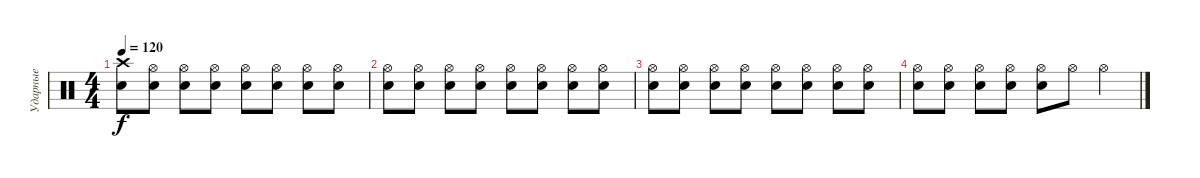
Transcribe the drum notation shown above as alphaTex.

\track ("Ударные" "Ударные") {instrument percussion}
\staff {score}
\articulation defaults
\ts (4 4)
\tempo 120
\clef neutral
\ks c
("Crash high (hit)" "Electric Snare (hit)").8{dy f} ("Electric Snare (hit)" "Hi-Hat (open)").8 ("Hi-Hat (open)" "Electric Snare (hit)").8 ("Electric Snare (hit)" "Hi-Hat (open)").8 ("Hi-Hat (open)" "Electric Snare (hit)").8 ("Electric Snare (hit)" "Hi-Hat (open)").8 ("Hi-Hat (open)" "Electric Snare (hit)").8 ("Electric Snare (hit)" "Hi-Hat (open)").8 |
("Hi-Hat (open)" "Electric Snare (hit)").8 ("Electric Snare (hit)" "Hi-Hat (open)").8 ("Hi-Hat (open)" "Electric Snare (hit)").8 ("Electric Snare (hit)" "Hi-Hat (open)").8 ("Hi-Hat (open)" "Electric Snare (hit)").8 ("Electric Snare (hit)" "Hi-Hat (open)").8 ("Hi-Hat (open)" "Electric Snare (hit)").8 ("Electric Snare (hit)" "Hi-Hat (open)").8 |
("Hi-Hat (open)" "Electric Snare (hit)").8 ("Electric Snare (hit)" "Hi-Hat (open)").8 ("Hi-Hat (open)" "Electric Snare (hit)").8 ("Electric Snare (hit)" "Hi-Hat (open)").8 ("Hi-Hat (open)" "Electric Snare (hit)").8 ("Electric Snare (hit)" "Hi-Hat (open)").8 ("Hi-Hat (open)" "Electric Snare (hit)").8 ("Electric Snare (hit)" "Hi-Hat (open)").8 |
("Hi-Hat (open)" "Electric Snare (hit)").8 ("Electric Snare (hit)" "Hi-Hat (open)").8 ("Hi-Hat (open)" "Electric Snare (hit)").8 ("Electric Snare (hit)" "Hi-Hat (open)").8 ("Hi-Hat (open)" "Electric Snare (hit)").8 "Hi-Hat (open)".8 "Hi-Hat (open)".4
